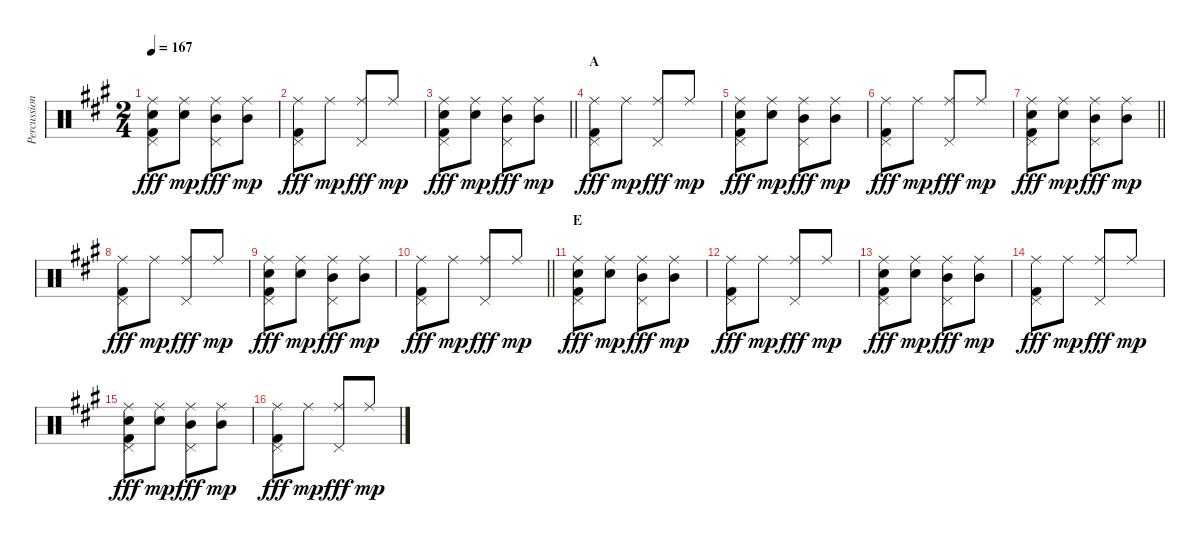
\track ("Percussion" "Percussion") {instrument percussion}
\staff {score}
\articulation defaults
\ts (2 4)
\tempo 167
\clef neutral
\ks a
("Ride (middle)" "Snare (hit) 2" "Pedal Hi-Hat (hit)" "Kick (hit) 2").8{dy fff} ("Ride (middle)" "Snare (hit) 2").8{dy mp} ("Ride (middle)" "Mid Tom (hit)" "Pedal Hi-Hat (hit)").8{dy fff} ("Ride (middle)" "Mid Tom (hit)").8{dy mp} |
("Ride (middle)" "Pedal Hi-Hat (hit)" "Kick (hit) 2").8{dy fff} "Ride (middle)".8{dy mp} ("Ride (middle)" "Pedal Hi-Hat (hit)").8{dy fff} "Ride (middle)".8{dy mp} |
\barLineRight lightlight
("Ride (middle)" "Snare (hit) 2" "Pedal Hi-Hat (hit)" "Kick (hit) 2").8{dy fff} ("Ride (middle)" "Snare (hit) 2").8{dy mp} ("Ride (middle)" "Mid Tom (hit)" "Pedal Hi-Hat (hit)").8{dy fff} ("Ride (middle)" "Mid Tom (hit)").8{dy mp} |
\section ("" "A")
("Ride (middle)" "Pedal Hi-Hat (hit)" "Kick (hit) 2").8{dy fff} "Ride (middle)".8{dy mp} ("Ride (middle)" "Pedal Hi-Hat (hit)").8{dy fff} "Ride (middle)".8{dy mp} |
("Ride (middle)" "Snare (hit) 2" "Pedal Hi-Hat (hit)" "Kick (hit) 2").8{dy fff} ("Ride (middle)" "Snare (hit) 2").8{dy mp} ("Ride (middle)" "Mid Tom (hit)" "Pedal Hi-Hat (hit)").8{dy fff} ("Ride (middle)" "Mid Tom (hit)").8{dy mp} |
("Ride (middle)" "Pedal Hi-Hat (hit)" "Kick (hit) 2").8{dy fff} "Ride (middle)".8{dy mp} ("Ride (middle)" "Pedal Hi-Hat (hit)").8{dy fff} "Ride (middle)".8{dy mp} |
\barLineRight lightlight
("Ride (middle)" "Snare (hit) 2" "Pedal Hi-Hat (hit)" "Kick (hit) 2").8{dy fff} ("Ride (middle)" "Snare (hit) 2").8{dy mp} ("Ride (middle)" "Mid Tom (hit)" "Pedal Hi-Hat (hit)").8{dy fff} ("Ride (middle)" "Mid Tom (hit)").8{dy mp} |
("Ride (middle)" "Pedal Hi-Hat (hit)" "Kick (hit) 2").8{dy fff} "Ride (middle)".8{dy mp} ("Ride (middle)" "Pedal Hi-Hat (hit)").8{dy fff} "Ride (middle)".8{dy mp} |
("Ride (middle)" "Snare (hit) 2" "Pedal Hi-Hat (hit)" "Kick (hit) 2").8{dy fff} ("Ride (middle)" "Snare (hit) 2").8{dy mp} ("Ride (middle)" "Mid Tom (hit)" "Pedal Hi-Hat (hit)").8{dy fff} ("Ride (middle)" "Mid Tom (hit)").8{dy mp} |
\barLineRight lightlight
("Ride (middle)" "Pedal Hi-Hat (hit)" "Kick (hit) 2").8{dy fff} "Ride (middle)".8{dy mp} ("Ride (middle)" "Pedal Hi-Hat (hit)").8{dy fff} "Ride (middle)".8{dy mp} |
\section ("" "E")
("Ride (middle)" "Snare (hit) 2" "Pedal Hi-Hat (hit)" "Kick (hit) 2").8{dy fff} ("Ride (middle)" "Snare (hit) 2").8{dy mp} ("Ride (middle)" "Mid Tom (hit)" "Pedal Hi-Hat (hit)").8{dy fff} ("Ride (middle)" "Mid Tom (hit)").8{dy mp} |
("Ride (middle)" "Pedal Hi-Hat (hit)" "Kick (hit) 2").8{dy fff} "Ride (middle)".8{dy mp} ("Ride (middle)" "Pedal Hi-Hat (hit)").8{dy fff} "Ride (middle)".8{dy mp} |
("Ride (middle)" "Snare (hit) 2" "Pedal Hi-Hat (hit)" "Kick (hit) 2").8{dy fff} ("Ride (middle)" "Snare (hit) 2").8{dy mp} ("Ride (middle)" "Mid Tom (hit)" "Pedal Hi-Hat (hit)").8{dy fff} ("Ride (middle)" "Mid Tom (hit)").8{dy mp} |
("Ride (middle)" "Pedal Hi-Hat (hit)" "Kick (hit) 2").8{dy fff} "Ride (middle)".8{dy mp} ("Ride (middle)" "Pedal Hi-Hat (hit)").8{dy fff} "Ride (middle)".8{dy mp} |
("Ride (middle)" "Snare (hit) 2" "Pedal Hi-Hat (hit)" "Kick (hit) 2").8{dy fff} ("Ride (middle)" "Snare (hit) 2").8{dy mp} ("Ride (middle)" "Mid Tom (hit)" "Pedal Hi-Hat (hit)").8{dy fff} ("Ride (middle)" "Mid Tom (hit)").8{dy mp} |
("Ride (middle)" "Pedal Hi-Hat (hit)" "Kick (hit) 2").8{dy fff} "Ride (middle)".8{dy mp} ("Ride (middle)" "Pedal Hi-Hat (hit)").8{dy fff} "Ride (middle)".8{dy mp}
